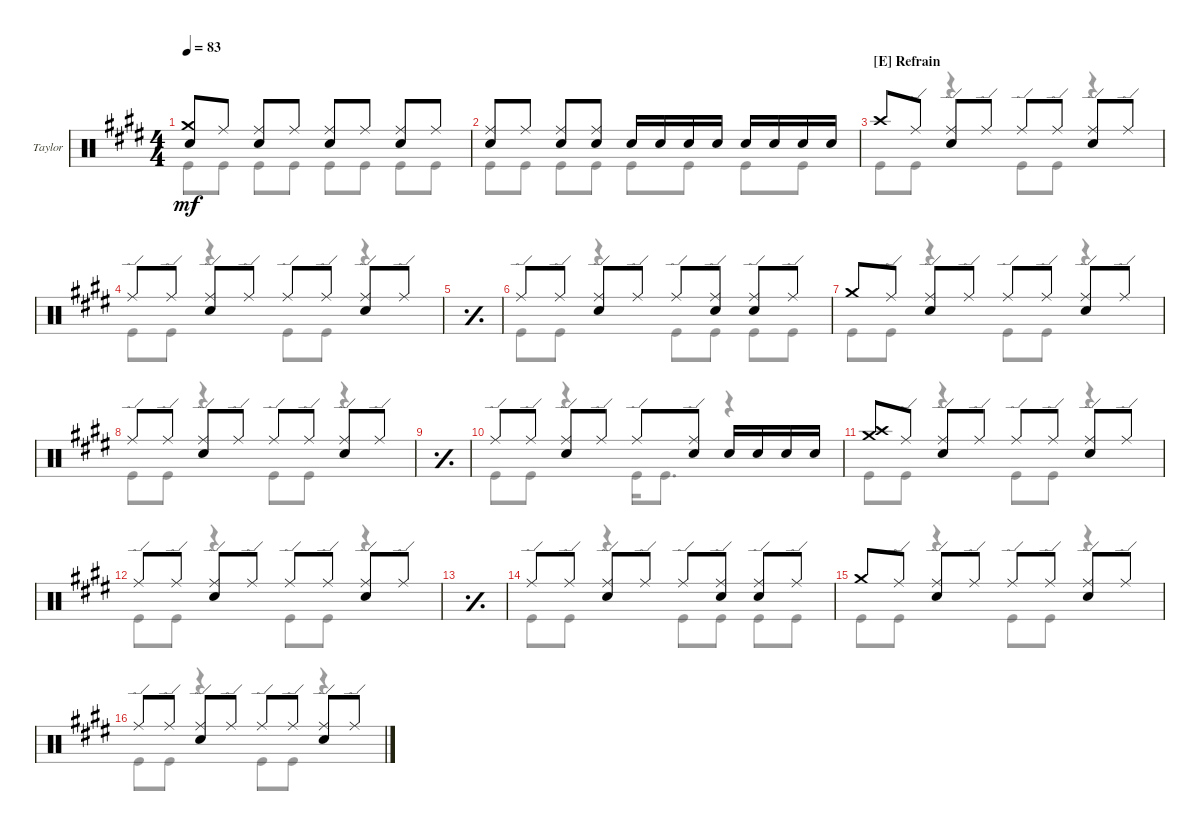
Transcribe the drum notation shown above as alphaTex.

\defaultSystemsLayout 4
\bracketExtendMode groupsimilarinstruments
\firstSystemTrackNameOrientation horizontal
\otherSystemsTrackNameOrientation horizontal
\track ("Drums - Taylor Hawkins" "Taylor") {instrument percussion}
\staff {score}
\articulation defaults
\voice
\ts (4 4)
\tempo 83
\clef neutral
\ks e
("Snare (hit) 2" "Crash medium (hit)").8{dy mf} "Ride (middle)".8 ("Snare (hit) 2" "Ride (middle)").8 "Ride (middle)".8 ("Snare (hit) 2" "Ride (middle)").8 "Ride (middle)".8 ("Snare (hit) 2" "Ride (middle)").8 "Ride (middle)".8 |
("Snare (hit) 2" "Ride (middle)").8 "Ride (middle)".8 ("Snare (hit) 2" "Ride (middle)").8 ("Snare (hit) 2" "Ride (middle)").8 "Snare (hit) 2".16 "Snare (hit) 2".16 "Snare (hit) 2".16 "Snare (hit) 2".16 "Snare (hit) 2".16 "Snare (hit) 2".16 "Snare (hit) 2".16 "Snare (hit) 2".16 |
\section ("E" "Refrain")
"Crash high (hit)".8 "Ride (edge)".8 ("Ride (edge)" "Snare (hit) 2").8 "Ride (edge)".8 "Ride (edge)".8 "Ride (edge)".8 ("Ride (edge)" "Snare (hit) 2").8 "Ride (edge)".8 |
"Ride (edge)".8 "Ride (edge)".8 ("Ride (edge)" "Snare (hit) 2").8 "Ride (edge)".8 "Ride (edge)".8 "Ride (edge)".8 ("Ride (edge)" "Snare (hit) 2").8 "Ride (edge)".8 |
\simile simple
|
\simile none "Ride (edge)".8 "Ride (edge)".8
("Ride (edge)" "Snare (hit) 2").8 "Ride (edge)".8 "Ride (edge)".8 ("Ride (edge)" "Snare (hit) 2").8 ("Ride (edge)" "Snare (hit) 2").8 "Ride (edge)".8 |
"Crash medium (hit)".8 "Ride (edge)".8 ("Ride (edge)" "Snare (hit) 2").8 "Ride (edge)".8 "Ride (edge)".8 "Ride (edge)".8 ("Ride (edge)" "Snare (hit) 2").8 "Ride (edge)".8 |
"Ride (edge)".8 "Ride (edge)".8 ("Ride (edge)" "Snare (hit) 2").8 "Ride (edge)".8 "Ride (edge)".8 "Ride (edge)".8 ("Ride (edge)" "Snare (hit) 2").8 "Ride (edge)".8 |
\simile simple
|
\simile none "Ride (edge)".8 "Ride (edge)".8
("Ride (edge)" "Snare (hit) 2").8 "Ride (edge)".8 "Ride (edge)".8 ("Ride (edge)" "Snare (hit) 2").8 "Snare (hit) 2".16 "Snare (hit) 2".16 "Snare (hit) 2".16 "Snare (hit) 2".16 |
("Crash high (hit)" "Crash medium (hit)").8 "Ride (edge)".8 ("Ride (edge)" "Snare (hit) 2").8 "Ride (edge)".8 "Ride (edge)".8 "Ride (edge)".8 ("Ride (edge)" "Snare (hit) 2").8 "Ride (edge)".8 |
"Ride (edge)".8 "Ride (edge)".8 ("Ride (edge)" "Snare (hit) 2").8 "Ride (edge)".8 "Ride (edge)".8 "Ride (edge)".8 ("Ride (edge)" "Snare (hit) 2").8 "Ride (edge)".8 |
\simile simple
|
\simile none "Ride (edge)".8 "Ride (edge)".8
("Ride (edge)" "Snare (hit) 2").8 "Ride (edge)".8 "Ride (edge)".8 ("Ride (edge)" "Snare (hit) 2").8 ("Ride (edge)" "Snare (hit) 2").8 "Ride (edge)".8 |
"Crash medium (hit)".8 "Ride (edge)".8 ("Ride (edge)" "Snare (hit) 2").8 "Ride (edge)".8 "Ride (edge)".8 "Ride (edge)".8 ("Ride (edge)" "Snare (hit) 2").8 "Ride (edge)".8 |
"Ride (edge)".8 "Ride (edge)".8 ("Ride (edge)" "Snare (hit) 2").8 "Ride (edge)".8 "Ride (edge)".8 "Ride (edge)".8 ("Ride (edge)" "Snare (hit) 2").8 "Ride (edge)".8
\voice
\clef neutral
\ottava regular
\simile none
\ks e "Kick (hit)".8{dy mf} "Kick (hit)".8 "Kick (hit)".8 "Kick (hit)".8 "Kick (hit)".8 "Kick (hit)".8 "Kick (hit)".8 "Kick (hit)".8
|
"Kick (hit)".8 "Kick (hit)".8 "Kick (hit)".8 "Kick (hit)".8 "Kick (hit)".8 "Kick (hit)".8 "Kick (hit)".8 "Kick (hit)".8 |
"Kick (hit)".8 "Kick (hit)".8 r.4 "Kick (hit)".8 "Kick (hit)".8 r.4 |
"Kick (hit)".8 "Kick (hit)".8 r.4 "Kick (hit)".8 "Kick (hit)".8 r.4 |
\simile simple
|
\simile none "Kick (hit)".8 "Kick (hit)".8
r.4 "Kick (hit)".8 "Kick (hit)".8 "Kick (hit)".8 "Kick (hit)".8 |
"Kick (hit)".8 "Kick (hit)".8 r.4 "Kick (hit)".8 "Kick (hit)".8 r.4 |
"Kick (hit)".8 "Kick (hit)".8 r.4 "Kick (hit)".8 "Kick (hit)".8 r.4 |
\simile simple
|
\simile none "Kick (hit)".8 "Kick (hit)".8
r.4 "Kick (hit)".16 "Kick (hit)".8{d} r.4 |
"Kick (hit)".8 "Kick (hit)".8 r.4 "Kick (hit)".8 "Kick (hit)".8 r.4 |
"Kick (hit)".8 "Kick (hit)".8 r.4 "Kick (hit)".8 "Kick (hit)".8 r.4 |
\simile simple
|
\simile none "Kick (hit)".8 "Kick (hit)".8
r.4 "Kick (hit)".8 "Kick (hit)".8 "Kick (hit)".8 "Kick (hit)".8 |
"Kick (hit)".8 "Kick (hit)".8 r.4 "Kick (hit)".8 "Kick (hit)".8 r.4 |
"Kick (hit)".8 "Kick (hit)".8 r.4 "Kick (hit)".8 "Kick (hit)".8 r.4
